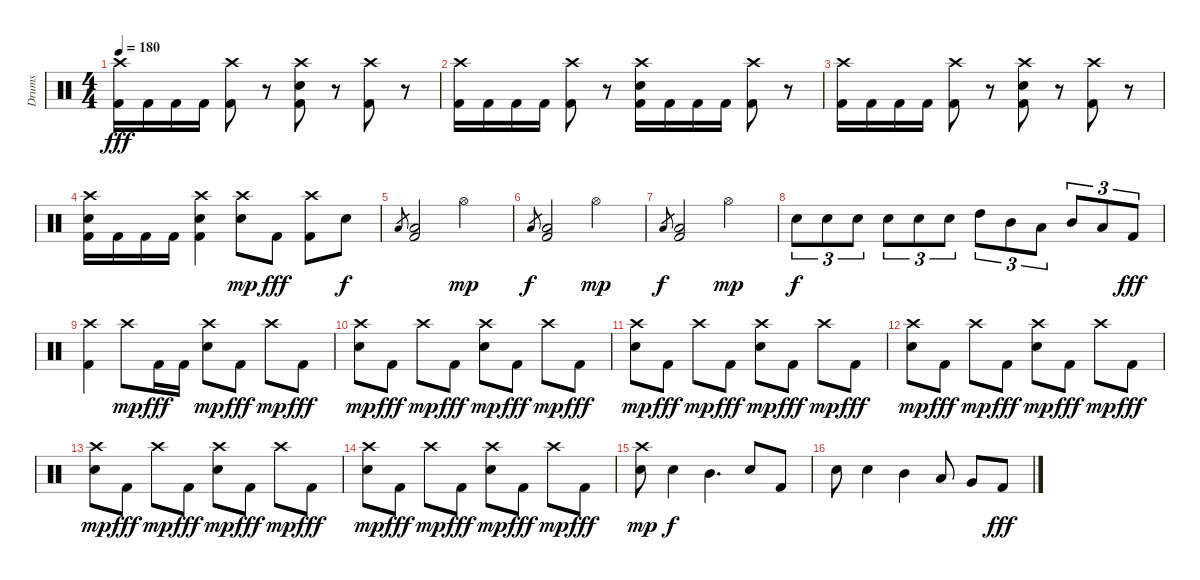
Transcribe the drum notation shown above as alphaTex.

\track ("Drums" "Drums") {instrument percussion}
\staff {score}
\articulation defaults
\ts (4 4)
\tempo 180
\clef neutral
\ks c
("Crash high (hit)" "Kick (hit) 2").16{dy fff} "Kick (hit) 2".16 "Kick (hit) 2".16 "Kick (hit) 2".16 ("Crash high (hit)" "Kick (hit) 2").8 r.8 ("Crash high (hit)" "Electric Snare (hit)" "Kick (hit) 2").8 r.8 ("Crash high (hit)" "Kick (hit) 2").8 r.8 |
("Crash high (hit)" "Kick (hit) 2").16 "Kick (hit) 2".16 "Kick (hit) 2".16 "Kick (hit) 2".16 ("Crash high (hit)" "Kick (hit) 2").8 r.8 ("Crash high (hit)" "Electric Snare (hit)" "Kick (hit) 2").16 "Kick (hit) 2".16 "Kick (hit) 2".16 "Kick (hit) 2".16 ("Crash high (hit)" "Kick (hit) 2").8 r.8 |
("Crash high (hit)" "Kick (hit) 2").16 "Kick (hit) 2".16 "Kick (hit) 2".16 "Kick (hit) 2".16 ("Crash high (hit)" "Kick (hit) 2").8 r.8 ("Crash high (hit)" "Electric Snare (hit)" "Kick (hit) 2").8 r.8 ("Crash high (hit)" "Kick (hit) 2").8 r.8 |
("Crash high (hit)" "Electric Snare (hit)" "Kick (hit) 2").16 "Kick (hit) 2".16 "Kick (hit) 2".16 "Kick (hit) 2".16 ("Crash high (hit)" "Electric Snare (hit)" "Kick (hit) 2").4 ("Crash high (hit)" "Electric Snare (hit)").8{dy mp} "Kick (hit) 2".8{dy fff} ("Crash high (hit)" "Kick (hit) 2").8 "Electric Snare (hit)".8{dy f} |
"Low Floor Tom (hit)".8{gr} ("Low Floor Tom (hit)" "Kick (hit) 2").2 "Hi-Hat (open)".2{dy mp} |
"Low Floor Tom (hit)".8{gr dy f} ("Low Floor Tom (hit)" "Kick (hit) 2").2 "Hi-Hat (open)".2{dy mp} |
"Low Floor Tom (hit)".8{gr dy f} ("Low Floor Tom (hit)" "Kick (hit) 2").2 "Hi-Hat (open)".2{dy mp} |
"Electric Snare (hit)".8{tu (3 2) dy f} "Electric Snare (hit)".8{tu (3 2)} "Electric Snare (hit)".8{tu (3 2)} "Electric Snare (hit)".8{tu (3 2)} "Electric Snare (hit)".8{tu (3 2)} "Electric Snare (hit)".8{tu (3 2)} "High Tom (hit)".8{tu (3 2)} "Mid Tom (hit)".8{tu (3 2)} "Low Tom (hit)".8{tu (3 2)} "Mid Tom (hit)".8{tu (3 2)} "Low Tom (hit)".8{tu (3 2)} "Kick (hit) 2".8{tu (3 2) dy fff} |
("Crash high (hit)" "Kick (hit) 2").4 "Crash high (hit)".8{dy mp} "Kick (hit) 2".16{dy fff} "Kick (hit) 2".16 ("Crash high (hit)" "Electric Snare (hit)").8{dy mp} "Kick (hit) 2".8{dy fff} "Crash high (hit)".8{dy mp} "Kick (hit) 2".8{dy fff} |
("Crash high (hit)" "Electric Snare (hit)").8{dy mp} "Kick (hit) 2".8{dy fff} "Crash high (hit)".8{dy mp} "Kick (hit) 2".8{dy fff} ("Crash high (hit)" "Electric Snare (hit)").8{dy mp} "Kick (hit) 2".8{dy fff} "Crash high (hit)".8{dy mp} "Kick (hit) 2".8{dy fff} |
("Crash high (hit)" "Electric Snare (hit)").8{dy mp} "Kick (hit) 2".8{dy fff} "Crash high (hit)".8{dy mp} "Kick (hit) 2".8{dy fff} ("Crash high (hit)" "Electric Snare (hit)").8{dy mp} "Kick (hit) 2".8{dy fff} "Crash high (hit)".8{dy mp} "Kick (hit) 2".8{dy fff} |
("Crash high (hit)" "Electric Snare (hit)").8{dy mp} "Kick (hit) 2".8{dy fff} "Crash high (hit)".8{dy mp} "Kick (hit) 2".8{dy fff} ("Crash high (hit)" "Electric Snare (hit)").8{dy mp} "Kick (hit) 2".8{dy fff} "Crash high (hit)".8{dy mp} "Kick (hit) 2".8{dy fff} |
("Crash high (hit)" "Electric Snare (hit)").8{dy mp} "Kick (hit) 2".8{dy fff} "Crash high (hit)".8{dy mp} "Kick (hit) 2".8{dy fff} ("Crash high (hit)" "Electric Snare (hit)").8{dy mp} "Kick (hit) 2".8{dy fff} "Crash high (hit)".8{dy mp} "Kick (hit) 2".8{dy fff} |
("Crash high (hit)" "Electric Snare (hit)").8{dy mp} "Kick (hit) 2".8{dy fff} "Crash high (hit)".8{dy mp} "Kick (hit) 2".8{dy fff} ("Crash high (hit)" "Electric Snare (hit)").8{dy mp} "Kick (hit) 2".8{dy fff} "Crash high (hit)".8{dy mp} "Kick (hit) 2".8{dy fff} |
("Crash high (hit)" "Electric Snare (hit)").8{dy mp} "Electric Snare (hit)".4{dy f} "Mid Tom (hit)".4{d} "Electric Snare (hit)".8 "Kick (hit) 2".8 |
"Electric Snare (hit)".8 "Electric Snare (hit)".4 "Mid Tom (hit)".4 "Low Tom (hit)".8 "Very Low Tom (hit)".8 "Kick (hit) 2".8{dy fff}
